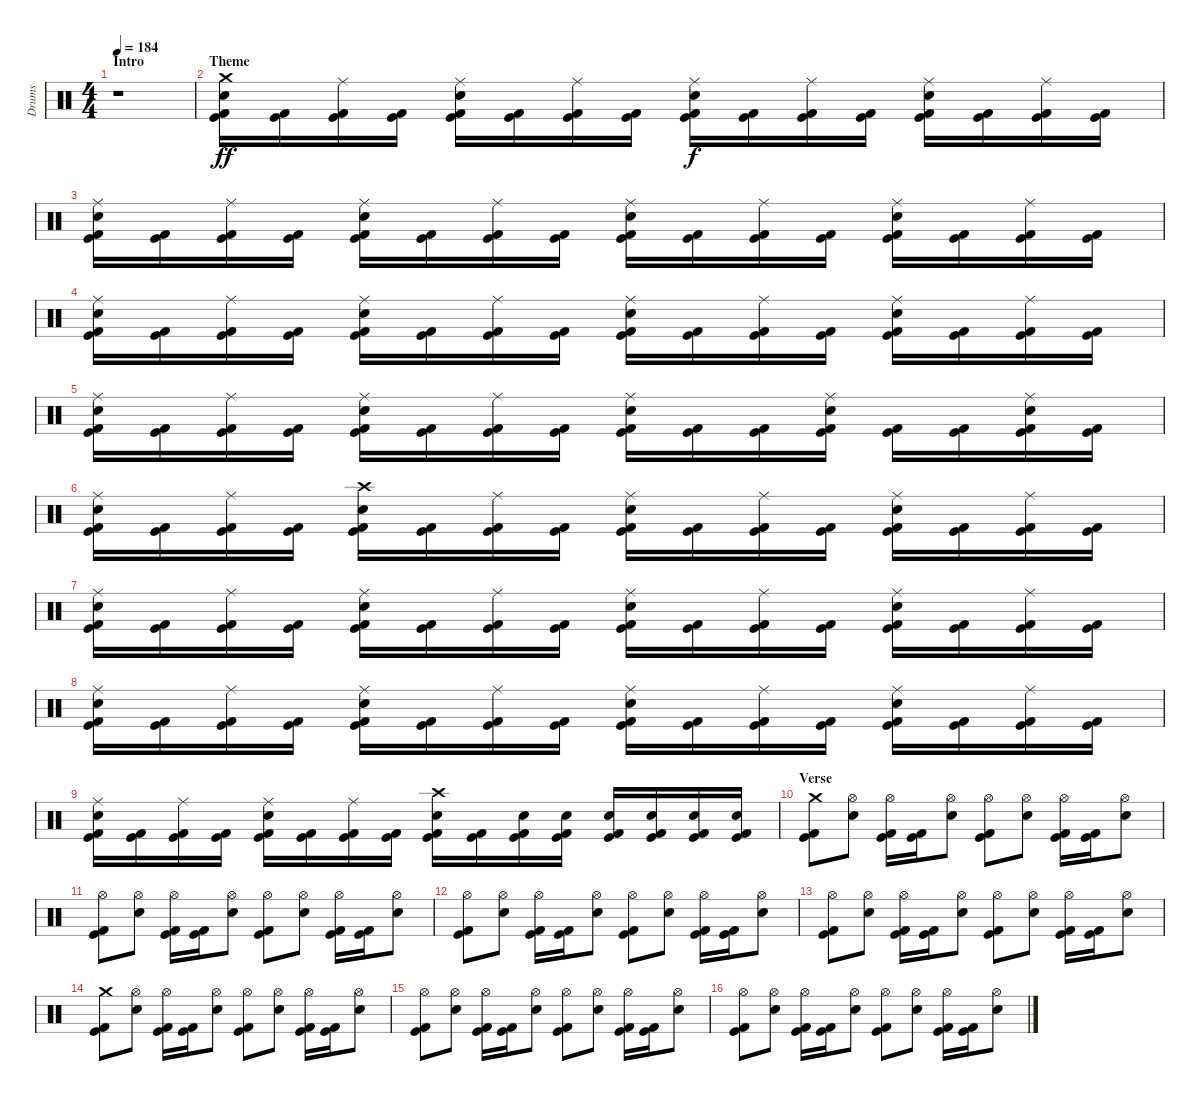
\track ("Drums" "Drums") {instrument percussion}
\staff {score}
\articulation defaults
\ts (4 4)
\section ("" "Intro")
\tempo 184
\clef neutral
\ks c
r.1{dy ff} |
\section ("" "Theme")
("Crash medium (hit)" "Electric Snare (hit)" "Kick (hit)" "Kick (hit) 2").16 ("Kick (hit)" "Kick (hit) 2").16 ("Ride (middle)" "Kick (hit)" "Kick (hit) 2").16 ("Kick (hit)" "Kick (hit) 2").16 ("Ride (middle)" "Electric Snare (hit)" "Kick (hit)" "Kick (hit) 2").16 ("Kick (hit)" "Kick (hit) 2").16 ("Ride (middle)" "Kick (hit)" "Kick (hit) 2").16 ("Kick (hit)" "Kick (hit) 2").16 ("Ride (middle)" "Electric Snare (hit)" "Kick (hit)" "Kick (hit) 2").16{dy f} ("Kick (hit)" "Kick (hit) 2").16 ("Ride (middle)" "Kick (hit)" "Kick (hit) 2").16 ("Kick (hit)" "Kick (hit) 2").16 ("Ride (middle)" "Electric Snare (hit)" "Kick (hit)" "Kick (hit) 2").16 ("Kick (hit)" "Kick (hit) 2").16 ("Ride (middle)" "Kick (hit)" "Kick (hit) 2").16 ("Kick (hit)" "Kick (hit) 2").16 |
("Ride (middle)" "Electric Snare (hit)" "Kick (hit)" "Kick (hit) 2").16 ("Kick (hit)" "Kick (hit) 2").16 ("Ride (middle)" "Kick (hit)" "Kick (hit) 2").16 ("Kick (hit)" "Kick (hit) 2").16 ("Ride (middle)" "Electric Snare (hit)" "Kick (hit)" "Kick (hit) 2").16 ("Kick (hit)" "Kick (hit) 2").16 ("Ride (middle)" "Kick (hit)" "Kick (hit) 2").16 ("Kick (hit)" "Kick (hit) 2").16 ("Ride (middle)" "Electric Snare (hit)" "Kick (hit)" "Kick (hit) 2").16 ("Kick (hit)" "Kick (hit) 2").16 ("Ride (middle)" "Kick (hit)" "Kick (hit) 2").16 ("Kick (hit)" "Kick (hit) 2").16 ("Ride (middle)" "Electric Snare (hit)" "Kick (hit)" "Kick (hit) 2").16 ("Kick (hit)" "Kick (hit) 2").16 ("Ride (middle)" "Kick (hit)" "Kick (hit) 2").16 ("Kick (hit)" "Kick (hit) 2").16 |
("Ride (middle)" "Electric Snare (hit)" "Kick (hit)" "Kick (hit) 2").16 ("Kick (hit)" "Kick (hit) 2").16 ("Ride (middle)" "Kick (hit)" "Kick (hit) 2").16 ("Kick (hit)" "Kick (hit) 2").16 ("Ride (middle)" "Electric Snare (hit)" "Kick (hit)" "Kick (hit) 2").16 ("Kick (hit)" "Kick (hit) 2").16 ("Ride (middle)" "Kick (hit)" "Kick (hit) 2").16 ("Kick (hit)" "Kick (hit) 2").16 ("Ride (middle)" "Electric Snare (hit)" "Kick (hit)" "Kick (hit) 2").16 ("Kick (hit)" "Kick (hit) 2").16 ("Ride (middle)" "Kick (hit)" "Kick (hit) 2").16 ("Kick (hit)" "Kick (hit) 2").16 ("Ride (middle)" "Electric Snare (hit)" "Kick (hit)" "Kick (hit) 2").16 ("Kick (hit)" "Kick (hit) 2").16 ("Ride (middle)" "Kick (hit)" "Kick (hit) 2").16 ("Kick (hit)" "Kick (hit) 2").16 |
("Ride (middle)" "Electric Snare (hit)" "Kick (hit)" "Kick (hit) 2").16 ("Kick (hit)" "Kick (hit) 2").16 ("Ride (middle)" "Kick (hit)" "Kick (hit) 2").16 ("Kick (hit)" "Kick (hit) 2").16 ("Ride (middle)" "Electric Snare (hit)" "Kick (hit)" "Kick (hit) 2").16 ("Kick (hit)" "Kick (hit) 2").16 ("Ride (middle)" "Kick (hit)" "Kick (hit) 2").16 ("Kick (hit)" "Kick (hit) 2").16 ("Ride (middle)" "Electric Snare (hit)" "Kick (hit)" "Kick (hit) 2").16 ("Kick (hit)" "Kick (hit) 2").16 ("Kick (hit)" "Kick (hit) 2").16 ("Ride (middle)" "Electric Snare (hit)" "Kick (hit)" "Kick (hit) 2").16 ("Kick (hit)" "Kick (hit) 2").16 ("Kick (hit)" "Kick (hit) 2").16 ("Ride (middle)" "Electric Snare (hit)" "Kick (hit)" "Kick (hit) 2").16 ("Kick (hit)" "Kick (hit) 2").16 |
("Ride (middle)" "Electric Snare (hit)" "Kick (hit)" "Kick (hit) 2").16 ("Kick (hit)" "Kick (hit) 2").16 ("Ride (middle)" "Kick (hit)" "Kick (hit) 2").16 ("Kick (hit)" "Kick (hit) 2").16 ("Crash high (hit)" "Electric Snare (hit)" "Kick (hit)" "Kick (hit) 2").16 ("Kick (hit)" "Kick (hit) 2").16 ("Ride (middle)" "Kick (hit)" "Kick (hit) 2").16 ("Kick (hit)" "Kick (hit) 2").16 ("Ride (middle)" "Electric Snare (hit)" "Kick (hit)" "Kick (hit) 2").16 ("Kick (hit)" "Kick (hit) 2").16 ("Ride (middle)" "Kick (hit)" "Kick (hit) 2").16 ("Kick (hit)" "Kick (hit) 2").16 ("Ride (middle)" "Electric Snare (hit)" "Kick (hit)" "Kick (hit) 2").16 ("Kick (hit)" "Kick (hit) 2").16 ("Ride (middle)" "Kick (hit)" "Kick (hit) 2").16 ("Kick (hit)" "Kick (hit) 2").16 |
("Ride (middle)" "Electric Snare (hit)" "Kick (hit)" "Kick (hit) 2").16 ("Kick (hit)" "Kick (hit) 2").16 ("Ride (middle)" "Kick (hit)" "Kick (hit) 2").16 ("Kick (hit)" "Kick (hit) 2").16 ("Ride (middle)" "Electric Snare (hit)" "Kick (hit)" "Kick (hit) 2").16 ("Kick (hit)" "Kick (hit) 2").16 ("Ride (middle)" "Kick (hit)" "Kick (hit) 2").16 ("Kick (hit)" "Kick (hit) 2").16 ("Ride (middle)" "Electric Snare (hit)" "Kick (hit)" "Kick (hit) 2").16 ("Kick (hit)" "Kick (hit) 2").16 ("Ride (middle)" "Kick (hit)" "Kick (hit) 2").16 ("Kick (hit)" "Kick (hit) 2").16 ("Ride (middle)" "Electric Snare (hit)" "Kick (hit)" "Kick (hit) 2").16 ("Kick (hit)" "Kick (hit) 2").16 ("Ride (middle)" "Kick (hit)" "Kick (hit) 2").16 ("Kick (hit)" "Kick (hit) 2").16 |
("Ride (middle)" "Electric Snare (hit)" "Kick (hit)" "Kick (hit) 2").16 ("Kick (hit)" "Kick (hit) 2").16 ("Ride (middle)" "Kick (hit)" "Kick (hit) 2").16 ("Kick (hit)" "Kick (hit) 2").16 ("Ride (middle)" "Electric Snare (hit)" "Kick (hit)" "Kick (hit) 2").16 ("Kick (hit)" "Kick (hit) 2").16 ("Ride (middle)" "Kick (hit)" "Kick (hit) 2").16 ("Kick (hit)" "Kick (hit) 2").16 ("Ride (middle)" "Electric Snare (hit)" "Kick (hit)" "Kick (hit) 2").16 ("Kick (hit)" "Kick (hit) 2").16 ("Ride (middle)" "Kick (hit)" "Kick (hit) 2").16 ("Kick (hit)" "Kick (hit) 2").16 ("Ride (middle)" "Electric Snare (hit)" "Kick (hit)" "Kick (hit) 2").16 ("Kick (hit)" "Kick (hit) 2").16 ("Ride (middle)" "Kick (hit)" "Kick (hit) 2").16 ("Kick (hit)" "Kick (hit) 2").16 |
("Ride (middle)" "Electric Snare (hit)" "Kick (hit)" "Kick (hit) 2").16 ("Kick (hit)" "Kick (hit) 2").16 ("Ride (middle)" "Kick (hit)" "Kick (hit) 2").16 ("Kick (hit)" "Kick (hit) 2").16 ("Ride (middle)" "Electric Snare (hit)" "Kick (hit)" "Kick (hit) 2").16 ("Kick (hit)" "Kick (hit) 2").16 ("Ride (middle)" "Kick (hit)" "Kick (hit) 2").16 ("Kick (hit)" "Kick (hit) 2").16 ("Crash high (hit)" "Electric Snare (hit)" "Kick (hit)" "Kick (hit) 2").16 ("Kick (hit)" "Kick (hit) 2").16 ("Electric Snare (hit)" "Kick (hit)" "Kick (hit) 2").16 ("Electric Snare (hit)" "Kick (hit)" "Kick (hit) 2").16 ("Electric Snare (hit)" "Kick (hit)" "Kick (hit) 2").16 ("Electric Snare (hit)" "Kick (hit)" "Kick (hit) 2").16 ("Electric Snare (hit)" "Kick (hit)" "Kick (hit) 2").16 ("Electric Snare (hit)" "Kick (hit)" "Kick (hit) 2").16 |
\section ("" "Verse")
("Crash medium (hit)" "Kick (hit)" "Kick (hit) 2").8 ("Hi-Hat (open)" "Electric Snare (hit)").8 ("Hi-Hat (open)" "Kick (hit)" "Kick (hit) 2").16 ("Kick (hit)" "Kick (hit) 2").16 ("Hi-Hat (open)" "Electric Snare (hit)").8 ("Hi-Hat (open)" "Kick (hit)" "Kick (hit) 2").8 ("Hi-Hat (open)" "Electric Snare (hit)").8 ("Hi-Hat (open)" "Kick (hit)" "Kick (hit) 2").16 ("Kick (hit)" "Kick (hit) 2").16 ("Hi-Hat (open)" "Electric Snare (hit)").8 |
("Hi-Hat (open)" "Kick (hit)" "Kick (hit) 2").8 ("Hi-Hat (open)" "Electric Snare (hit)").8 ("Hi-Hat (open)" "Kick (hit)" "Kick (hit) 2").16 ("Kick (hit)" "Kick (hit) 2").16 ("Hi-Hat (open)" "Electric Snare (hit)").8 ("Hi-Hat (open)" "Kick (hit)" "Kick (hit) 2").8 ("Hi-Hat (open)" "Electric Snare (hit)").8 ("Hi-Hat (open)" "Kick (hit)" "Kick (hit) 2").16 ("Kick (hit)" "Kick (hit) 2").16 ("Hi-Hat (open)" "Electric Snare (hit)").8 |
("Hi-Hat (open)" "Kick (hit)" "Kick (hit) 2").8 ("Hi-Hat (open)" "Electric Snare (hit)").8 ("Hi-Hat (open)" "Kick (hit)" "Kick (hit) 2").16 ("Kick (hit)" "Kick (hit) 2").16 ("Hi-Hat (open)" "Electric Snare (hit)").8 ("Hi-Hat (open)" "Kick (hit)" "Kick (hit) 2").8 ("Hi-Hat (open)" "Electric Snare (hit)").8 ("Hi-Hat (open)" "Kick (hit)" "Kick (hit) 2").16 ("Kick (hit)" "Kick (hit) 2").16 ("Hi-Hat (open)" "Electric Snare (hit)").8 |
("Hi-Hat (open)" "Kick (hit)" "Kick (hit) 2").8 ("Hi-Hat (open)" "Electric Snare (hit)").8 ("Hi-Hat (open)" "Kick (hit)" "Kick (hit) 2").16 ("Kick (hit)" "Kick (hit) 2").16 ("Hi-Hat (open)" "Electric Snare (hit)").8 ("Hi-Hat (open)" "Kick (hit)" "Kick (hit) 2").8 ("Hi-Hat (open)" "Electric Snare (hit)").8 ("Hi-Hat (open)" "Kick (hit)" "Kick (hit) 2").16 ("Kick (hit)" "Kick (hit) 2").16 ("Hi-Hat (open)" "Electric Snare (hit)").8 |
("Crash medium (hit)" "Kick (hit)" "Kick (hit) 2").8 ("Hi-Hat (open)" "Electric Snare (hit)").8 ("Hi-Hat (open)" "Kick (hit)" "Kick (hit) 2").16 ("Kick (hit)" "Kick (hit) 2").16 ("Hi-Hat (open)" "Electric Snare (hit)").8 ("Hi-Hat (open)" "Kick (hit)" "Kick (hit) 2").8 ("Hi-Hat (open)" "Electric Snare (hit)").8 ("Hi-Hat (open)" "Kick (hit)" "Kick (hit) 2").16 ("Kick (hit)" "Kick (hit) 2").16 ("Hi-Hat (open)" "Electric Snare (hit)").8 |
("Hi-Hat (open)" "Kick (hit)" "Kick (hit) 2").8 ("Hi-Hat (open)" "Electric Snare (hit)").8 ("Hi-Hat (open)" "Kick (hit)" "Kick (hit) 2").16 ("Kick (hit)" "Kick (hit) 2").16 ("Hi-Hat (open)" "Electric Snare (hit)").8 ("Hi-Hat (open)" "Kick (hit)" "Kick (hit) 2").8 ("Hi-Hat (open)" "Electric Snare (hit)").8 ("Hi-Hat (open)" "Kick (hit)" "Kick (hit) 2").16 ("Kick (hit)" "Kick (hit) 2").16 ("Hi-Hat (open)" "Electric Snare (hit)").8 |
("Hi-Hat (open)" "Kick (hit)" "Kick (hit) 2").8 ("Hi-Hat (open)" "Electric Snare (hit)").8 ("Hi-Hat (open)" "Kick (hit)" "Kick (hit) 2").16 ("Kick (hit)" "Kick (hit) 2").16 ("Hi-Hat (open)" "Electric Snare (hit)").8 ("Hi-Hat (open)" "Kick (hit)" "Kick (hit) 2").8 ("Hi-Hat (open)" "Electric Snare (hit)").8 ("Hi-Hat (open)" "Kick (hit)" "Kick (hit) 2").16 ("Kick (hit)" "Kick (hit) 2").16 ("Hi-Hat (open)" "Electric Snare (hit)").8
